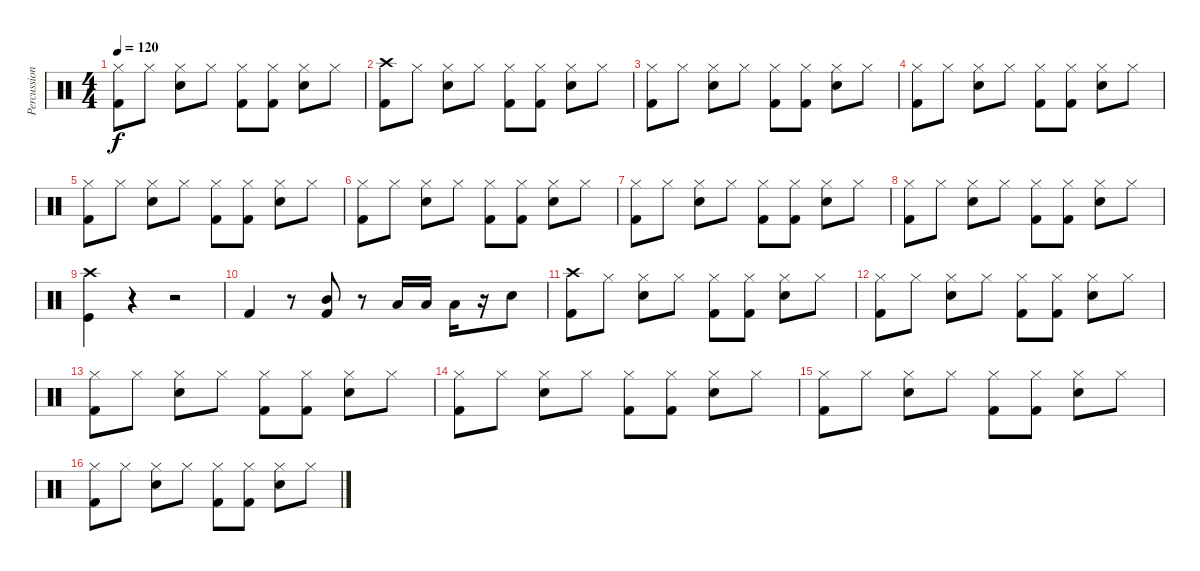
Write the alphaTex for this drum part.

\track ("Percussion" "Percussion") {instrument percussion}
\staff {score}
\articulation defaults
\ts (4 4)
\tempo 120
\clef neutral
\ks c
("Hi-Hat (closed)" "Kick (hit) 2").8{dy f} "Hi-Hat (closed)".8 ("Hi-Hat (closed)" "Electric Snare (hit)").8 "Hi-Hat (closed)".8 ("Hi-Hat (closed)" "Kick (hit) 2").8 ("Hi-Hat (closed)" "Kick (hit) 2").8 ("Hi-Hat (closed)" "Electric Snare (hit)").8 "Hi-Hat (closed)".8 |
("Crash high (hit)" "Kick (hit) 2").8 "Hi-Hat (closed)".8 ("Hi-Hat (closed)" "Electric Snare (hit)").8 "Hi-Hat (closed)".8 ("Hi-Hat (closed)" "Kick (hit) 2").8 ("Hi-Hat (closed)" "Kick (hit) 2").8 ("Hi-Hat (closed)" "Electric Snare (hit)").8 "Hi-Hat (closed)".8 |
("Hi-Hat (closed)" "Kick (hit) 2").8 "Hi-Hat (closed)".8 ("Hi-Hat (closed)" "Electric Snare (hit)").8 "Hi-Hat (closed)".8 ("Hi-Hat (closed)" "Kick (hit) 2").8 ("Hi-Hat (closed)" "Kick (hit) 2").8 ("Hi-Hat (closed)" "Electric Snare (hit)").8 "Hi-Hat (closed)".8 |
("Hi-Hat (closed)" "Kick (hit) 2").8 "Hi-Hat (closed)".8 ("Hi-Hat (closed)" "Electric Snare (hit)").8 "Hi-Hat (closed)".8 ("Hi-Hat (closed)" "Kick (hit) 2").8 ("Hi-Hat (closed)" "Kick (hit) 2").8 ("Hi-Hat (closed)" "Electric Snare (hit)").8 "Hi-Hat (closed)".8 |
("Hi-Hat (closed)" "Kick (hit) 2").8 "Hi-Hat (closed)".8 ("Hi-Hat (closed)" "Electric Snare (hit)").8 "Hi-Hat (closed)".8 ("Hi-Hat (closed)" "Kick (hit) 2").8 ("Hi-Hat (closed)" "Kick (hit) 2").8 ("Hi-Hat (closed)" "Electric Snare (hit)").8 "Hi-Hat (closed)".8 |
("Hi-Hat (closed)" "Kick (hit) 2").8 "Hi-Hat (closed)".8 ("Hi-Hat (closed)" "Electric Snare (hit)").8 "Hi-Hat (closed)".8 ("Hi-Hat (closed)" "Kick (hit) 2").8 ("Hi-Hat (closed)" "Kick (hit) 2").8 ("Hi-Hat (closed)" "Electric Snare (hit)").8 "Hi-Hat (closed)".8 |
("Hi-Hat (closed)" "Kick (hit) 2").8 "Hi-Hat (closed)".8 ("Hi-Hat (closed)" "Electric Snare (hit)").8 "Hi-Hat (closed)".8 ("Hi-Hat (closed)" "Kick (hit) 2").8 ("Hi-Hat (closed)" "Kick (hit) 2").8 ("Hi-Hat (closed)" "Electric Snare (hit)").8 "Hi-Hat (closed)".8 |
("Hi-Hat (closed)" "Kick (hit) 2").8 "Hi-Hat (closed)".8 ("Hi-Hat (closed)" "Electric Snare (hit)").8 "Hi-Hat (closed)".8 ("Hi-Hat (closed)" "Kick (hit) 2").8 ("Hi-Hat (closed)" "Kick (hit) 2").8 ("Hi-Hat (closed)" "Electric Snare (hit)").8 "Hi-Hat (closed)".8 |
("Crash high (hit)" "Kick (hit)").4 r.4 r.2 |
"Kick (hit) 2".4 r.8 ("Mid Tom (hit)" "Kick (hit) 2").8 r.8 "Low Tom (hit)".16 "Low Tom (hit)".16 "Low Tom (hit)".16 r.16 "Electric Snare (hit)".8 |
("Crash high (hit)" "Kick (hit) 2").8 "Hi-Hat (closed)".8 ("Hi-Hat (closed)" "Electric Snare (hit)").8 "Hi-Hat (closed)".8 ("Hi-Hat (closed)" "Kick (hit) 2").8 ("Hi-Hat (closed)" "Kick (hit) 2").8 ("Hi-Hat (closed)" "Electric Snare (hit)").8 "Hi-Hat (closed)".8 |
("Hi-Hat (closed)" "Kick (hit) 2").8 "Hi-Hat (closed)".8 ("Hi-Hat (closed)" "Electric Snare (hit)").8 "Hi-Hat (closed)".8 ("Hi-Hat (closed)" "Kick (hit) 2").8 ("Hi-Hat (closed)" "Kick (hit) 2").8 ("Hi-Hat (closed)" "Electric Snare (hit)").8 "Hi-Hat (closed)".8 |
("Hi-Hat (closed)" "Kick (hit) 2").8 "Hi-Hat (closed)".8 ("Hi-Hat (closed)" "Electric Snare (hit)").8 "Hi-Hat (closed)".8 ("Hi-Hat (closed)" "Kick (hit) 2").8 ("Hi-Hat (closed)" "Kick (hit) 2").8 ("Hi-Hat (closed)" "Electric Snare (hit)").8 "Hi-Hat (closed)".8 |
("Hi-Hat (closed)" "Kick (hit) 2").8 "Hi-Hat (closed)".8 ("Hi-Hat (closed)" "Electric Snare (hit)").8 "Hi-Hat (closed)".8 ("Hi-Hat (closed)" "Kick (hit) 2").8 ("Hi-Hat (closed)" "Kick (hit) 2").8 ("Hi-Hat (closed)" "Electric Snare (hit)").8 "Hi-Hat (closed)".8 |
("Hi-Hat (closed)" "Kick (hit) 2").8 "Hi-Hat (closed)".8 ("Hi-Hat (closed)" "Electric Snare (hit)").8 "Hi-Hat (closed)".8 ("Hi-Hat (closed)" "Kick (hit) 2").8 ("Hi-Hat (closed)" "Kick (hit) 2").8 ("Hi-Hat (closed)" "Electric Snare (hit)").8 "Hi-Hat (closed)".8 |
("Hi-Hat (closed)" "Kick (hit) 2").8 "Hi-Hat (closed)".8 ("Hi-Hat (closed)" "Electric Snare (hit)").8 "Hi-Hat (closed)".8 ("Hi-Hat (closed)" "Kick (hit) 2").8 ("Hi-Hat (closed)" "Kick (hit) 2").8 ("Hi-Hat (closed)" "Electric Snare (hit)").8 "Hi-Hat (closed)".8
